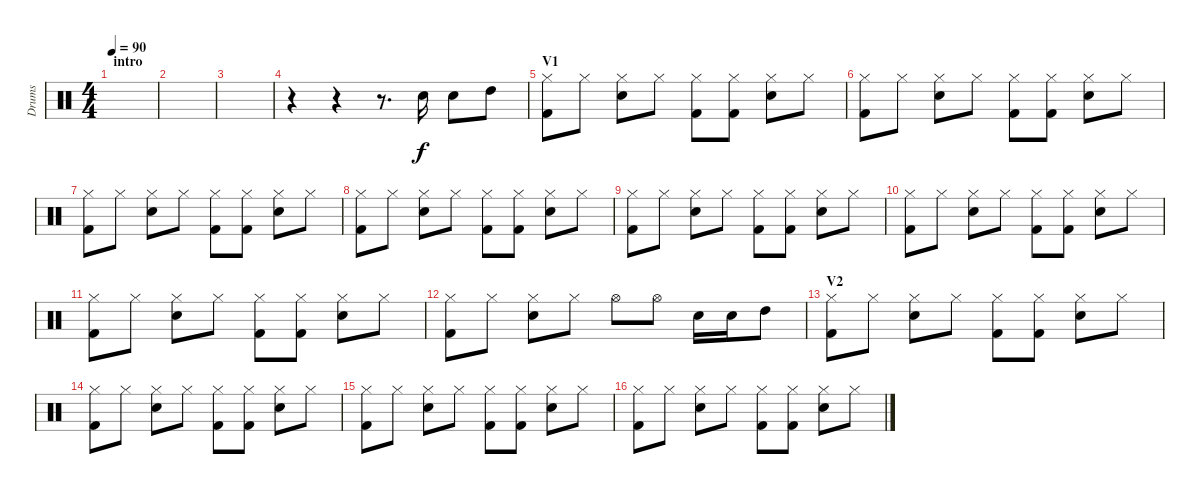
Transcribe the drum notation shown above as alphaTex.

\track ("Drums" "Drums") {instrument percussion}
\staff {score}
\articulation defaults
\ts (4 4)
\section ("" "intro")
\tempo 90
\clef neutral
\ks c
|
|
|
r.4 r.4 r.8{d} "Snare (hit) 2".16 "Snare (hit) 2".8 "High Tom (hit)".8 |
\section ("" "V1")
("Hi-Hat (closed)" "Kick (hit) 2").8 "Hi-Hat (closed)".8 ("Hi-Hat (closed)" "Snare (hit) 2").8 "Hi-Hat (closed)".8 ("Hi-Hat (closed)" "Kick (hit) 2").8 ("Hi-Hat (closed)" "Kick (hit) 2").8 ("Hi-Hat (closed)" "Snare (hit) 2").8 "Hi-Hat (closed)".8 |
("Hi-Hat (closed)" "Kick (hit) 2").8 "Hi-Hat (closed)".8 ("Hi-Hat (closed)" "Snare (hit) 2").8 "Hi-Hat (closed)".8 ("Hi-Hat (closed)" "Kick (hit) 2").8 ("Hi-Hat (closed)" "Kick (hit) 2").8 ("Hi-Hat (closed)" "Snare (hit) 2").8 "Hi-Hat (closed)".8 |
("Hi-Hat (closed)" "Kick (hit) 2").8 "Hi-Hat (closed)".8 ("Hi-Hat (closed)" "Snare (hit) 2").8 "Hi-Hat (closed)".8 ("Hi-Hat (closed)" "Kick (hit) 2").8 ("Hi-Hat (closed)" "Kick (hit) 2").8 ("Hi-Hat (closed)" "Snare (hit) 2").8 "Hi-Hat (closed)".8 |
("Hi-Hat (closed)" "Kick (hit) 2").8 "Hi-Hat (closed)".8 ("Hi-Hat (closed)" "Snare (hit) 2").8 "Hi-Hat (closed)".8 ("Hi-Hat (closed)" "Kick (hit) 2").8 ("Hi-Hat (closed)" "Kick (hit) 2").8 ("Hi-Hat (closed)" "Snare (hit) 2").8 "Hi-Hat (closed)".8 |
("Hi-Hat (closed)" "Kick (hit) 2").8 "Hi-Hat (closed)".8 ("Hi-Hat (closed)" "Snare (hit) 2").8 "Hi-Hat (closed)".8 ("Hi-Hat (closed)" "Kick (hit) 2").8 ("Hi-Hat (closed)" "Kick (hit) 2").8 ("Hi-Hat (closed)" "Snare (hit) 2").8 "Hi-Hat (closed)".8 |
("Hi-Hat (closed)" "Kick (hit) 2").8 "Hi-Hat (closed)".8 ("Hi-Hat (closed)" "Snare (hit) 2").8 "Hi-Hat (closed)".8 ("Hi-Hat (closed)" "Kick (hit) 2").8 ("Hi-Hat (closed)" "Kick (hit) 2").8 ("Hi-Hat (closed)" "Snare (hit) 2").8 "Hi-Hat (closed)".8 |
("Hi-Hat (closed)" "Kick (hit) 2").8 "Hi-Hat (closed)".8 ("Hi-Hat (closed)" "Snare (hit) 2").8 "Hi-Hat (closed)".8 ("Hi-Hat (closed)" "Kick (hit) 2").8 ("Hi-Hat (closed)" "Kick (hit) 2").8 ("Hi-Hat (closed)" "Snare (hit) 2").8 "Hi-Hat (closed)".8 |
("Hi-Hat (closed)" "Kick (hit) 2").8 "Hi-Hat (closed)".8 ("Hi-Hat (closed)" "Snare (hit) 2").8 "Hi-Hat (closed)".8 "Hi-Hat (open)".8 "Hi-Hat (open)".8 "Snare (hit) 2".16 "Snare (hit) 2".16 "High Tom (hit)".8 |
\section ("" "V2")
("Hi-Hat (closed)" "Kick (hit) 2").8 "Hi-Hat (closed)".8 ("Hi-Hat (closed)" "Snare (hit) 2").8 "Hi-Hat (closed)".8 ("Hi-Hat (closed)" "Kick (hit) 2").8 ("Hi-Hat (closed)" "Kick (hit) 2").8 ("Hi-Hat (closed)" "Snare (hit) 2").8 "Hi-Hat (closed)".8 |
("Hi-Hat (closed)" "Kick (hit) 2").8 "Hi-Hat (closed)".8 ("Hi-Hat (closed)" "Snare (hit) 2").8 "Hi-Hat (closed)".8 ("Hi-Hat (closed)" "Kick (hit) 2").8 ("Hi-Hat (closed)" "Kick (hit) 2").8 ("Hi-Hat (closed)" "Snare (hit) 2").8 "Hi-Hat (closed)".8 |
("Hi-Hat (closed)" "Kick (hit) 2").8 "Hi-Hat (closed)".8 ("Hi-Hat (closed)" "Snare (hit) 2").8 "Hi-Hat (closed)".8 ("Hi-Hat (closed)" "Kick (hit) 2").8 ("Hi-Hat (closed)" "Kick (hit) 2").8 ("Hi-Hat (closed)" "Snare (hit) 2").8 "Hi-Hat (closed)".8 |
("Hi-Hat (closed)" "Kick (hit) 2").8 "Hi-Hat (closed)".8 ("Hi-Hat (closed)" "Snare (hit) 2").8 "Hi-Hat (closed)".8 ("Hi-Hat (closed)" "Kick (hit) 2").8 ("Hi-Hat (closed)" "Kick (hit) 2").8 ("Hi-Hat (closed)" "Snare (hit) 2").8 "Hi-Hat (closed)".8
